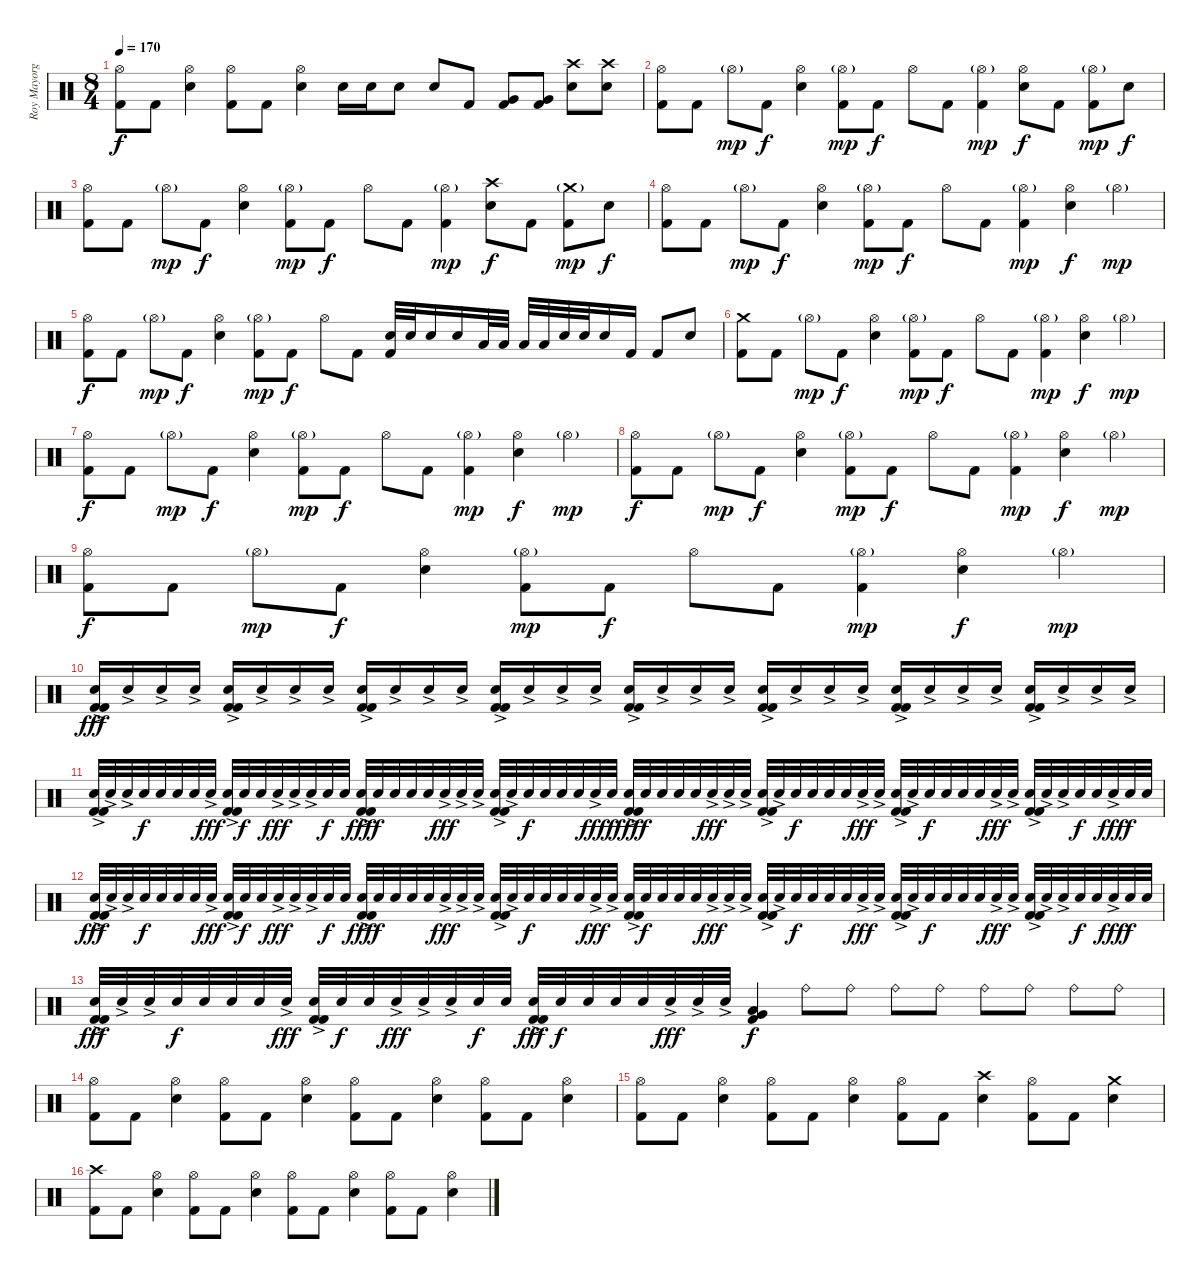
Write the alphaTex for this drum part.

\track ("Roy Mayorga" "Roy Mayorg") {instrument percussion}
\staff {score}
\articulation defaults
\ts (8 4)
\tempo 170
\clef neutral
\ks c
("Hi-Hat (open)" "Kick (hit) 2").8{dy f} "Kick (hit) 2".8 ("Hi-Hat (open)" "Electric Snare (hit)").4 ("Hi-Hat (open)" "Kick (hit) 2").8 "Kick (hit) 2".8 ("Hi-Hat (open)" "Electric Snare (hit)").4 "Electric Snare (hit)".16 "Electric Snare (hit)".16 "Electric Snare (hit)".8 "Electric Snare (hit)".8 "Kick (hit) 2".8 ("Very Low Tom (hit)" "Kick (hit) 2").8 ("Very Low Tom (hit)" "Kick (hit) 2").8 ("Crash high (hit)" "Electric Snare (hit)").8 ("Crash high (hit)" "Electric Snare (hit)").8 |
("Hi-Hat (open)" "Kick (hit) 2").8 "Kick (hit) 2".8 "Hi-Hat (open)"{g}.8{dy mp} "Kick (hit) 2".8{dy f} ("Hi-Hat (open)" "Electric Snare (hit)").4 ("Hi-Hat (open)"{g} "Kick (hit) 2").8{dy mp} "Kick (hit) 2".8{dy f} "Hi-Hat (open)".8 "Kick (hit) 2".8 ("Hi-Hat (open)"{g} "Kick (hit) 2").4{dy mp} ("Hi-Hat (open)" "Electric Snare (hit)").8{dy f} "Kick (hit) 2".8 ("Hi-Hat (open)"{g} "Kick (hit) 2").8{dy mp} "Electric Snare (hit)".8{dy f} |
("Hi-Hat (open)" "Kick (hit) 2").8 "Kick (hit) 2".8 "Hi-Hat (open)"{g}.8{dy mp} "Kick (hit) 2".8{dy f} ("Hi-Hat (open)" "Electric Snare (hit)").4 ("Hi-Hat (open)"{g} "Kick (hit) 2").8{dy mp} "Kick (hit) 2".8{dy f} "Hi-Hat (open)".8 "Kick (hit) 2".8 ("Hi-Hat (open)"{g} "Kick (hit) 2").4{dy mp} ("Crash high (hit)" "Electric Snare (hit)").8{dy f} "Kick (hit) 2".8 ("Crash medium (hit)"{g} "Kick (hit) 2").8{dy mp} "Electric Snare (hit)".8{dy f} |
("Hi-Hat (open)" "Kick (hit) 2").8 "Kick (hit) 2".8 "Hi-Hat (open)"{g}.8{dy mp} "Kick (hit) 2".8{dy f} ("Hi-Hat (open)" "Electric Snare (hit)").4 ("Hi-Hat (open)"{g} "Kick (hit) 2").8{dy mp} "Kick (hit) 2".8{dy f} "Hi-Hat (open)".8 "Kick (hit) 2".8 ("Hi-Hat (open)"{g} "Kick (hit) 2").4{dy mp} ("Hi-Hat (open)" "Electric Snare (hit)").4{dy f} "Hi-Hat (open)"{g}.4{dy mp} |
("Hi-Hat (open)" "Kick (hit) 2").8{dy f} "Kick (hit) 2".8 "Hi-Hat (open)"{g}.8{dy mp} "Kick (hit) 2".8{dy f} ("Hi-Hat (open)" "Electric Snare (hit)").4 ("Hi-Hat (open)"{g} "Kick (hit) 2").8{dy mp} "Kick (hit) 2".8{dy f} "Hi-Hat (open)".8 "Kick (hit) 2".8 ("Electric Snare (hit)" "Kick (hit) 2").32 "Electric Snare (hit)".32 "Electric Snare (hit)".16 "Electric Snare (hit)".16 "Low Tom (hit)".32 "Low Tom (hit)".32 "Low Tom (hit)".32 "Low Tom (hit)".32 "Electric Snare (hit)".32 "Electric Snare (hit)".32 "Electric Snare (hit)".16 "Kick (hit) 2".16 "Kick (hit) 2".8 "Electric Snare (hit)".8 |
("Crash medium (hit)" "Kick (hit) 2").8 "Kick (hit) 2".8 "Hi-Hat (open)"{g}.8{dy mp} "Kick (hit) 2".8{dy f} ("Hi-Hat (open)" "Electric Snare (hit)").4 ("Hi-Hat (open)"{g} "Kick (hit) 2").8{dy mp} "Kick (hit) 2".8{dy f} "Hi-Hat (open)".8 "Kick (hit) 2".8 ("Hi-Hat (open)"{g} "Kick (hit) 2").4{dy mp} ("Hi-Hat (open)" "Electric Snare (hit)").4{dy f} "Hi-Hat (open)"{g}.4{dy mp} |
("Hi-Hat (open)" "Kick (hit) 2").8{dy f} "Kick (hit) 2".8 "Hi-Hat (open)"{g}.8{dy mp} "Kick (hit) 2".8{dy f} ("Hi-Hat (open)" "Electric Snare (hit)").4 ("Hi-Hat (open)"{g} "Kick (hit) 2").8{dy mp} "Kick (hit) 2".8{dy f} "Hi-Hat (open)".8 "Kick (hit) 2".8 ("Hi-Hat (open)"{g} "Kick (hit) 2").4{dy mp} ("Hi-Hat (open)" "Electric Snare (hit)").4{dy f} "Hi-Hat (open)"{g}.4{dy mp} |
("Hi-Hat (open)" "Kick (hit) 2").8{dy f} "Kick (hit) 2".8 "Hi-Hat (open)"{g}.8{dy mp} "Kick (hit) 2".8{dy f} ("Hi-Hat (open)" "Electric Snare (hit)").4 ("Hi-Hat (open)"{g} "Kick (hit) 2").8{dy mp} "Kick (hit) 2".8{dy f} "Hi-Hat (open)".8 "Kick (hit) 2".8 ("Hi-Hat (open)"{g} "Kick (hit) 2").4{dy mp} ("Hi-Hat (open)" "Electric Snare (hit)").4{dy f} "Hi-Hat (open)"{g}.4{dy mp} |
("Hi-Hat (open)" "Kick (hit) 2").8{dy f} "Kick (hit) 2".8 "Hi-Hat (open)"{g}.8{dy mp} "Kick (hit) 2".8{dy f} ("Hi-Hat (open)" "Electric Snare (hit)").4 ("Hi-Hat (open)"{g} "Kick (hit) 2").8{dy mp} "Kick (hit) 2".8{dy f} "Hi-Hat (open)".8 "Kick (hit) 2".8 ("Hi-Hat (open)"{g} "Kick (hit) 2").4{dy mp} ("Hi-Hat (open)" "Electric Snare (hit)").4{dy f} "Hi-Hat (open)"{g}.4{dy mp} |
("Electric Snare (hit)"{ac} "Kick (hit) 2"{ac} "Kick (hit) 2").16{dy fff} "Electric Snare (hit)"{ac}.16 "Electric Snare (hit)"{ac}.16 "Electric Snare (hit)"{ac}.16 ("Electric Snare (hit)"{ac} "Kick (hit) 2"{ac} "Kick (hit) 2").16 "Electric Snare (hit)"{ac}.16 "Electric Snare (hit)"{ac}.16 "Electric Snare (hit)"{ac}.16 ("Electric Snare (hit)"{ac} "Kick (hit) 2"{ac} "Kick (hit) 2").16 "Electric Snare (hit)"{ac}.16 "Electric Snare (hit)"{ac}.16 "Electric Snare (hit)"{ac}.16 ("Electric Snare (hit)"{ac} "Kick (hit) 2"{ac} "Kick (hit) 2").16 "Electric Snare (hit)"{ac}.16 "Electric Snare (hit)"{ac}.16 "Electric Snare (hit)"{ac}.16 ("Electric Snare (hit)"{ac} "Kick (hit) 2"{ac} "Kick (hit) 2").16 "Electric Snare (hit)"{ac}.16 "Electric Snare (hit)"{ac}.16 "Electric Snare (hit)"{ac}.16 ("Electric Snare (hit)"{ac} "Kick (hit) 2"{ac} "Kick (hit) 2").16 "Electric Snare (hit)"{ac}.16 "Electric Snare (hit)"{ac}.16 "Electric Snare (hit)"{ac}.16 ("Electric Snare (hit)"{ac} "Kick (hit) 2"{ac} "Kick (hit) 2").16 "Electric Snare (hit)"{ac}.16 "Electric Snare (hit)"{ac}.16 "Electric Snare (hit)"{ac}.16 ("Electric Snare (hit)"{ac} "Kick (hit) 2"{ac} "Kick (hit) 2").16 "Electric Snare (hit)"{ac}.16 "Electric Snare (hit)"{ac}.16 "Electric Snare (hit)"{ac}.16 |
("Electric Snare (hit)"{ac} "Kick (hit) 2"{ac} "Kick (hit) 2").32 "Electric Snare (hit)"{ac}.32 "Electric Snare (hit)"{ac}.32 "Electric Snare (hit)".32{dy f} "Electric Snare (hit)".32 "Electric Snare (hit)".32 "Electric Snare (hit)".32 "Electric Snare (hit)"{ac}.32{dy fff} ("Electric Snare (hit)"{ac} "Kick (hit) 2"{ac} "Kick (hit) 2").32 "Electric Snare (hit)".32{dy f} "Electric Snare (hit)".32 "Electric Snare (hit)"{ac}.32{dy fff} "Electric Snare (hit)"{ac}.32 "Electric Snare (hit)"{ac}.32 "Electric Snare (hit)".32{dy f} "Electric Snare (hit)".32 ("Electric Snare (hit)"{ac} "Kick (hit) 2"{ac} "Kick (hit) 2").32{dy fff} "Electric Snare (hit)".32{dy f} "Electric Snare (hit)".32 "Electric Snare (hit)".32 "Electric Snare (hit)".32 "Electric Snare (hit)"{ac}.32{dy fff} "Electric Snare (hit)"{ac}.32 "Electric Snare (hit)"{ac}.32 ("Electric Snare (hit)"{ac} "Kick (hit) 2"{ac} "Kick (hit) 2").32 "Electric Snare (hit)"{ac}.32 "Electric Snare (hit)".32{dy f} "Electric Snare (hit)".32 "Electric Snare (hit)".32 "Electric Snare (hit)".32 "Electric Snare (hit)"{ac}.32{dy fff} "Electric Snare (hit)".32{dy f} ("Electric Snare (hit)"{ac} "Kick (hit) 2"{ac} "Kick (hit) 2").32{dy fff} "Electric Snare (hit)".32{dy f} "Electric Snare (hit)".32 "Electric Snare (hit)".32 "Electric Snare (hit)".32 "Electric Snare (hit)"{ac}.32{dy fff} "Electric Snare (hit)"{ac}.32 "Electric Snare (hit)"{ac}.32 ("Electric Snare (hit)"{ac} "Kick (hit) 2"{ac} "Kick (hit) 2").32 "Electric Snare (hit)"{ac}.32 "Electric Snare (hit)".32{dy f} "Electric Snare (hit)".32 "Electric Snare (hit)".32 "Electric Snare (hit)".32 "Electric Snare (hit)"{ac}.32{dy fff} "Electric Snare (hit)"{ac}.32 ("Electric Snare (hit)"{ac} "Kick (hit) 2"{ac} "Kick (hit) 2").32 "Electric Snare (hit)"{ac}.32 "Electric Snare (hit)".32{dy f} "Electric Snare (hit)".32 "Electric Snare (hit)".32 "Electric Snare (hit)".32 "Electric Snare (hit)"{ac}.32{dy fff} "Electric Snare (hit)"{ac}.32 ("Electric Snare (hit)"{ac} "Kick (hit) 2"{ac} "Kick (hit) 2").32 "Electric Snare (hit)"{ac}.32 "Electric Snare (hit)"{ac}.32 "Electric Snare (hit)".32{dy f} "Electric Snare (hit)".32 "Electric Snare (hit)"{ac}.32{dy fff} "Electric Snare (hit)".32{dy f} "Electric Snare (hit)".32 |
("Electric Snare (hit)"{ac} "Kick (hit) 2"{ac} "Kick (hit) 2").32{dy fff} "Electric Snare (hit)"{ac}.32 "Electric Snare (hit)"{ac}.32 "Electric Snare (hit)".32{dy f} "Electric Snare (hit)".32 "Electric Snare (hit)".32 "Electric Snare (hit)".32 "Electric Snare (hit)"{ac}.32{dy fff} ("Electric Snare (hit)"{ac} "Kick (hit) 2"{ac} "Kick (hit) 2").32 "Electric Snare (hit)".32{dy f} "Electric Snare (hit)".32 "Electric Snare (hit)"{ac}.32{dy fff} "Electric Snare (hit)"{ac}.32 "Electric Snare (hit)"{ac}.32 "Electric Snare (hit)".32{dy f} "Electric Snare (hit)".32 ("Electric Snare (hit)"{ac} "Kick (hit) 2"{ac} "Kick (hit) 2").32{dy fff} "Electric Snare (hit)".32{dy f} "Electric Snare (hit)".32 "Electric Snare (hit)".32 "Electric Snare (hit)".32 "Electric Snare (hit)"{ac}.32{dy fff} "Electric Snare (hit)"{ac}.32 "Electric Snare (hit)"{ac}.32 ("Electric Snare (hit)"{ac} "Kick (hit) 2"{ac} "Kick (hit) 2").32 "Electric Snare (hit)"{ac}.32 "Electric Snare (hit)".32{dy f} "Electric Snare (hit)".32 "Electric Snare (hit)".32 "Electric Snare (hit)".32 "Electric Snare (hit)"{ac}.32{dy fff} "Electric Snare (hit)"{ac}.32 ("Electric Snare (hit)"{ac} "Kick (hit) 2"{ac} "Kick (hit) 2").32 "Electric Snare (hit)".32{dy f} "Electric Snare (hit)".32 "Electric Snare (hit)".32 "Electric Snare (hit)".32 "Electric Snare (hit)"{ac}.32{dy fff} "Electric Snare (hit)"{ac}.32 "Electric Snare (hit)"{ac}.32 ("Electric Snare (hit)"{ac} "Kick (hit) 2"{ac} "Kick (hit) 2").32 "Electric Snare (hit)"{ac}.32 "Electric Snare (hit)".32{dy f} "Electric Snare (hit)".32 "Electric Snare (hit)".32 "Electric Snare (hit)".32 "Electric Snare (hit)"{ac}.32{dy fff} "Electric Snare (hit)"{ac}.32 ("Electric Snare (hit)"{ac} "Kick (hit) 2"{ac} "Kick (hit) 2").32 "Electric Snare (hit)"{ac}.32 "Electric Snare (hit)".32{dy f} "Electric Snare (hit)".32 "Electric Snare (hit)".32 "Electric Snare (hit)".32 "Electric Snare (hit)"{ac}.32{dy fff} "Electric Snare (hit)"{ac}.32 ("Electric Snare (hit)"{ac} "Kick (hit) 2"{ac} "Kick (hit) 2").32 "Electric Snare (hit)"{ac}.32 "Electric Snare (hit)"{ac}.32 "Electric Snare (hit)".32{dy f} "Electric Snare (hit)".32 "Electric Snare (hit)"{ac}.32{dy fff} "Electric Snare (hit)".32{dy f} "Electric Snare (hit)".32 |
("Electric Snare (hit)"{ac} "Kick (hit) 2"{ac} "Kick (hit) 2").32{dy fff} "Electric Snare (hit)"{ac}.32 "Electric Snare (hit)"{ac}.32 "Electric Snare (hit)".32{dy f} "Electric Snare (hit)".32 "Electric Snare (hit)".32 "Electric Snare (hit)".32 "Electric Snare (hit)"{ac}.32{dy fff} ("Electric Snare (hit)"{ac} "Kick (hit) 2"{ac} "Kick (hit) 2").32 "Electric Snare (hit)".32{dy f} "Electric Snare (hit)".32 "Electric Snare (hit)"{ac}.32{dy fff} "Electric Snare (hit)"{ac}.32 "Electric Snare (hit)"{ac}.32 "Electric Snare (hit)".32{dy f} "Electric Snare (hit)".32 ("Electric Snare (hit)"{ac} "Kick (hit) 2"{ac} "Kick (hit) 2").32{dy fff} "Electric Snare (hit)".32{dy f} "Electric Snare (hit)".32 "Electric Snare (hit)".32 "Electric Snare (hit)".32 "Electric Snare (hit)"{ac}.32{dy fff} "Electric Snare (hit)"{ac}.32 "Electric Snare (hit)"{ac}.32 ("Low Floor Tom (hit)" "Very Low Tom (hit)" "Kick (hit) 2").4{dy f} "Ride (bell)".8 "Ride (bell)".8 "Ride (bell)".8 "Ride (bell)".8 "Ride (bell)".8 "Ride (bell)".8 "Ride (bell)".8 "Ride (bell)".8 |
("Hi-Hat (open)" "Kick (hit) 2").8 "Kick (hit) 2".8 ("Hi-Hat (open)" "Electric Snare (hit)").4 ("Hi-Hat (open)" "Kick (hit) 2").8 "Kick (hit) 2".8 ("Hi-Hat (open)" "Electric Snare (hit)").4 ("Hi-Hat (open)" "Kick (hit) 2").8 "Kick (hit) 2".8 ("Hi-Hat (open)" "Electric Snare (hit)").4 ("Hi-Hat (open)" "Kick (hit) 2").8 "Kick (hit) 2".8 ("Hi-Hat (open)" "Electric Snare (hit)").4 |
("Hi-Hat (open)" "Kick (hit) 2").8 "Kick (hit) 2".8 ("Hi-Hat (open)" "Electric Snare (hit)").4 ("Hi-Hat (open)" "Kick (hit) 2").8 "Kick (hit) 2".8 ("Hi-Hat (open)" "Electric Snare (hit)").4 ("Hi-Hat (open)" "Kick (hit) 2").8 "Kick (hit) 2".8 ("Crash high (hit)" "Electric Snare (hit)").4 ("Hi-Hat (open)" "Kick (hit) 2").8 "Kick (hit) 2".8 ("Crash medium (hit)" "Electric Snare (hit)").4 |
("Crash high (hit)" "Kick (hit) 2").8 "Kick (hit) 2".8 ("Hi-Hat (open)" "Electric Snare (hit)").4 ("Hi-Hat (open)" "Kick (hit) 2").8 "Kick (hit) 2".8 ("Hi-Hat (open)" "Electric Snare (hit)").4 ("Hi-Hat (open)" "Kick (hit) 2").8 "Kick (hit) 2".8 ("Hi-Hat (open)" "Electric Snare (hit)").4 ("Hi-Hat (open)" "Kick (hit) 2").8 "Kick (hit) 2".8 ("Hi-Hat (open)" "Electric Snare (hit)").4
